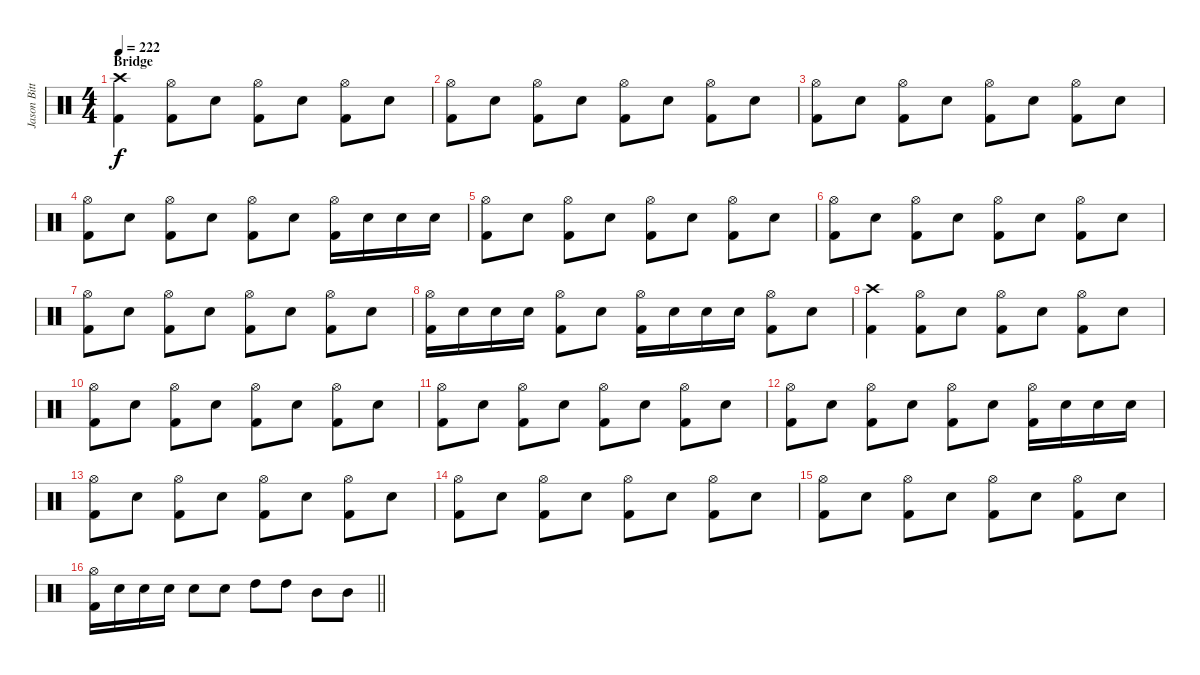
\track ("Jason Bittner" "Jason Bitt") {instrument percussion}
\staff {score}
\articulation defaults
\ts (4 4)
\section ("" "Bridge")
\tempo 222
\clef neutral
\ks c
("Crash high (hit)" "Kick (hit) 2").4{dy f} ("Hi-Hat (open)" "Kick (hit) 2").8 "Electric Snare (hit)".8 ("Hi-Hat (open)" "Kick (hit) 2").8 "Electric Snare (hit)".8 ("Hi-Hat (open)" "Kick (hit) 2").8 "Electric Snare (hit)".8 |
("Hi-Hat (open)" "Kick (hit) 2").8 "Electric Snare (hit)".8 ("Hi-Hat (open)" "Kick (hit) 2").8 "Electric Snare (hit)".8 ("Hi-Hat (open)" "Kick (hit) 2").8 "Electric Snare (hit)".8 ("Hi-Hat (open)" "Kick (hit) 2").8 "Electric Snare (hit)".8 |
("Hi-Hat (open)" "Kick (hit) 2").8 "Electric Snare (hit)".8 ("Hi-Hat (open)" "Kick (hit) 2").8 "Electric Snare (hit)".8 ("Hi-Hat (open)" "Kick (hit) 2").8 "Electric Snare (hit)".8 ("Hi-Hat (open)" "Kick (hit) 2").8 "Electric Snare (hit)".8 |
("Hi-Hat (open)" "Kick (hit) 2").8 "Electric Snare (hit)".8 ("Hi-Hat (open)" "Kick (hit) 2").8 "Electric Snare (hit)".8 ("Hi-Hat (open)" "Kick (hit) 2").8 "Electric Snare (hit)".8 ("Hi-Hat (open)" "Kick (hit) 2").16 "Electric Snare (hit)".16 "Electric Snare (hit)".16 "Electric Snare (hit)".16 |
("Hi-Hat (open)" "Kick (hit) 2").8 "Electric Snare (hit)".8 ("Hi-Hat (open)" "Kick (hit) 2").8 "Electric Snare (hit)".8 ("Hi-Hat (open)" "Kick (hit) 2").8 "Electric Snare (hit)".8 ("Hi-Hat (open)" "Kick (hit) 2").8 "Electric Snare (hit)".8 |
("Hi-Hat (open)" "Kick (hit) 2").8 "Electric Snare (hit)".8 ("Hi-Hat (open)" "Kick (hit) 2").8 "Electric Snare (hit)".8 ("Hi-Hat (open)" "Kick (hit) 2").8 "Electric Snare (hit)".8 ("Hi-Hat (open)" "Kick (hit) 2").8 "Electric Snare (hit)".8 |
("Hi-Hat (open)" "Kick (hit) 2").8 "Electric Snare (hit)".8 ("Hi-Hat (open)" "Kick (hit) 2").8 "Electric Snare (hit)".8 ("Hi-Hat (open)" "Kick (hit) 2").8 "Electric Snare (hit)".8 ("Hi-Hat (open)" "Kick (hit) 2").8 "Electric Snare (hit)".8 |
("Hi-Hat (open)" "Kick (hit) 2").16 "Electric Snare (hit)".16 "Electric Snare (hit)".16 "Electric Snare (hit)".16 ("Hi-Hat (open)" "Kick (hit) 2").8 "Electric Snare (hit)".8 ("Hi-Hat (open)" "Kick (hit) 2").16 "Electric Snare (hit)".16 "Electric Snare (hit)".16 "Electric Snare (hit)".16 ("Hi-Hat (open)" "Kick (hit) 2").8 "Electric Snare (hit)".8 |
("Crash high (hit)" "Kick (hit) 2").4 ("Hi-Hat (open)" "Kick (hit) 2").8 "Electric Snare (hit)".8 ("Hi-Hat (open)" "Kick (hit) 2").8 "Electric Snare (hit)".8 ("Hi-Hat (open)" "Kick (hit) 2").8 "Electric Snare (hit)".8 |
("Hi-Hat (open)" "Kick (hit) 2").8 "Electric Snare (hit)".8 ("Hi-Hat (open)" "Kick (hit) 2").8 "Electric Snare (hit)".8 ("Hi-Hat (open)" "Kick (hit) 2").8 "Electric Snare (hit)".8 ("Hi-Hat (open)" "Kick (hit) 2").8 "Electric Snare (hit)".8 |
("Hi-Hat (open)" "Kick (hit) 2").8 "Electric Snare (hit)".8 ("Hi-Hat (open)" "Kick (hit) 2").8 "Electric Snare (hit)".8 ("Hi-Hat (open)" "Kick (hit) 2").8 "Electric Snare (hit)".8 ("Hi-Hat (open)" "Kick (hit) 2").8 "Electric Snare (hit)".8 |
("Hi-Hat (open)" "Kick (hit) 2").8 "Electric Snare (hit)".8 ("Hi-Hat (open)" "Kick (hit) 2").8 "Electric Snare (hit)".8 ("Hi-Hat (open)" "Kick (hit) 2").8 "Electric Snare (hit)".8 ("Hi-Hat (open)" "Kick (hit) 2").16 "Electric Snare (hit)".16 "Electric Snare (hit)".16 "Electric Snare (hit)".16 |
("Hi-Hat (open)" "Kick (hit) 2").8 "Electric Snare (hit)".8 ("Hi-Hat (open)" "Kick (hit) 2").8 "Electric Snare (hit)".8 ("Hi-Hat (open)" "Kick (hit) 2").8 "Electric Snare (hit)".8 ("Hi-Hat (open)" "Kick (hit) 2").8 "Electric Snare (hit)".8 |
("Hi-Hat (open)" "Kick (hit) 2").8 "Electric Snare (hit)".8 ("Hi-Hat (open)" "Kick (hit) 2").8 "Electric Snare (hit)".8 ("Hi-Hat (open)" "Kick (hit) 2").8 "Electric Snare (hit)".8 ("Hi-Hat (open)" "Kick (hit) 2").8 "Electric Snare (hit)".8 |
("Hi-Hat (open)" "Kick (hit) 2").8 "Electric Snare (hit)".8 ("Hi-Hat (open)" "Kick (hit) 2").8 "Electric Snare (hit)".8 ("Hi-Hat (open)" "Kick (hit) 2").8 "Electric Snare (hit)".8 ("Hi-Hat (open)" "Kick (hit) 2").8 "Electric Snare (hit)".8 |
\barLineRight lightlight
("Hi-Hat (open)" "Kick (hit) 2").16 "Electric Snare (hit)".16 "Electric Snare (hit)".16 "Electric Snare (hit)".16 "Electric Snare (hit)".8 "Electric Snare (hit)".8 "High Tom (hit)".8 "High Tom (hit)".8 "Mid Tom (hit)".8 "Mid Tom (hit)".8
